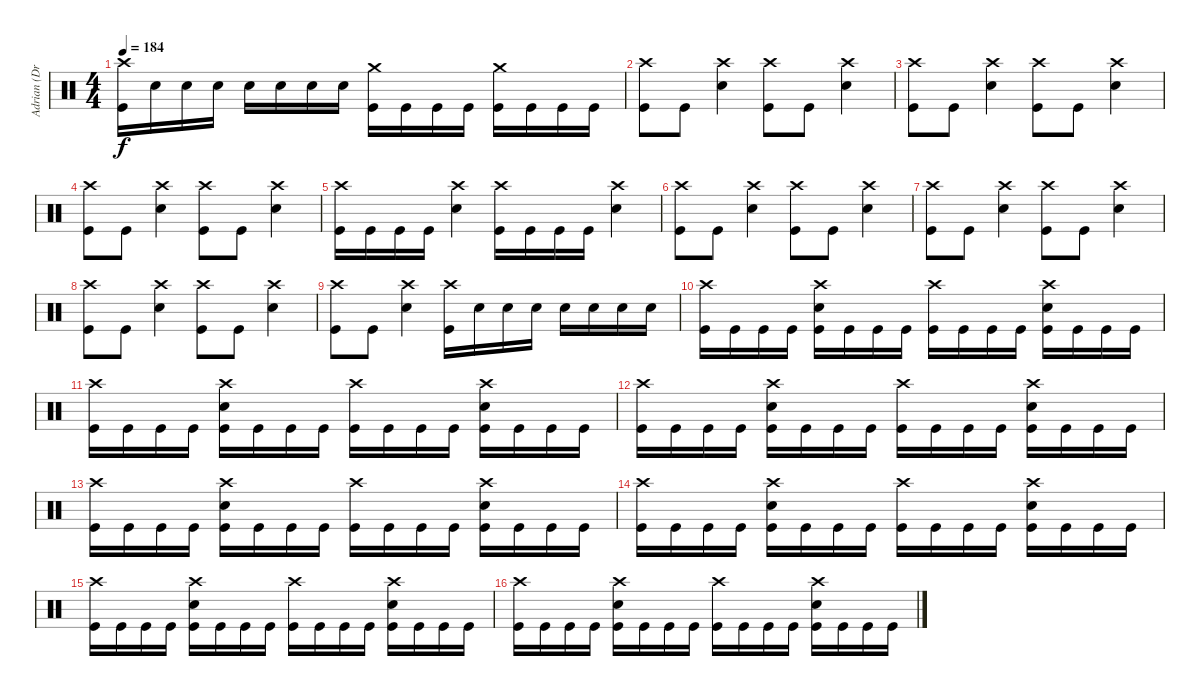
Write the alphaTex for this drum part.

\track ("Adrian (Drums)" "Adrian (Dr") {instrument percussion}
\staff {score}
\articulation defaults
\ts (4 4)
\tempo 184
\clef neutral
\ks c
("Crash high (hit)" "Kick (hit)").16{dy f} "Electric Snare (hit)".16 "Electric Snare (hit)".16 "Electric Snare (hit)".16 "Electric Snare (hit)".16 "Electric Snare (hit)".16 "Electric Snare (hit)".16 "Electric Snare (hit)".16 ("Crash medium (hit)" "Kick (hit)").16 "Kick (hit)".16 "Kick (hit)".16 "Kick (hit)".16 ("Crash medium (hit)" "Kick (hit)").16 "Kick (hit)".16 "Kick (hit)".16 "Kick (hit)".16 |
("Crash high (hit)" "Kick (hit)").8 "Kick (hit)".8 ("Crash high (hit)" "Electric Snare (hit)").4 ("Crash high (hit)" "Kick (hit)").8 "Kick (hit)".8 ("Crash high (hit)" "Electric Snare (hit)").4 |
("Crash high (hit)" "Kick (hit)").8 "Kick (hit)".8 ("Crash high (hit)" "Electric Snare (hit)").4 ("Crash high (hit)" "Kick (hit)").8 "Kick (hit)".8 ("Crash high (hit)" "Electric Snare (hit)").4 |
("Crash high (hit)" "Kick (hit)").8 "Kick (hit)".8 ("Crash high (hit)" "Electric Snare (hit)").4 ("Crash high (hit)" "Kick (hit)").8 "Kick (hit)".8 ("Crash high (hit)" "Electric Snare (hit)").4 |
("Crash high (hit)" "Kick (hit)").16 "Kick (hit)".16 "Kick (hit)".16 "Kick (hit)".16 ("Crash high (hit)" "Electric Snare (hit)").4 ("Crash high (hit)" "Kick (hit)").16 "Kick (hit)".16 "Kick (hit)".16 "Kick (hit)".16 ("Crash high (hit)" "Electric Snare (hit)").4 |
("Crash high (hit)" "Kick (hit)").8 "Kick (hit)".8 ("Crash high (hit)" "Electric Snare (hit)").4 ("Crash high (hit)" "Kick (hit)").8 "Kick (hit)".8 ("Crash high (hit)" "Electric Snare (hit)").4 |
("Crash high (hit)" "Kick (hit)").8 "Kick (hit)".8 ("Crash high (hit)" "Electric Snare (hit)").4 ("Crash high (hit)" "Kick (hit)").8 "Kick (hit)".8 ("Crash high (hit)" "Electric Snare (hit)").4 |
("Crash high (hit)" "Kick (hit)").8 "Kick (hit)".8 ("Crash high (hit)" "Electric Snare (hit)").4 ("Crash high (hit)" "Kick (hit)").8 "Kick (hit)".8 ("Crash high (hit)" "Electric Snare (hit)").4 |
("Crash high (hit)" "Kick (hit)").8 "Kick (hit)".8 ("Crash high (hit)" "Electric Snare (hit)").4 ("Crash high (hit)" "Kick (hit)").16 "Electric Snare (hit)".16 "Electric Snare (hit)".16 "Electric Snare (hit)".16 "Electric Snare (hit)".16 "Electric Snare (hit)".16 "Electric Snare (hit)".16 "Electric Snare (hit)".16 |
("Crash high (hit)" "Kick (hit)").16 "Kick (hit)".16 "Kick (hit)".16 "Kick (hit)".16 ("Crash high (hit)" "Electric Snare (hit)" "Kick (hit)").16 "Kick (hit)".16 "Kick (hit)".16 "Kick (hit)".16 ("Crash high (hit)" "Kick (hit)").16 "Kick (hit)".16 "Kick (hit)".16 "Kick (hit)".16 ("Crash high (hit)" "Electric Snare (hit)" "Kick (hit)").16 "Kick (hit)".16 "Kick (hit)".16 "Kick (hit)".16 |
("Crash high (hit)" "Kick (hit)").16 "Kick (hit)".16 "Kick (hit)".16 "Kick (hit)".16 ("Crash high (hit)" "Electric Snare (hit)" "Kick (hit)").16 "Kick (hit)".16 "Kick (hit)".16 "Kick (hit)".16 ("Crash high (hit)" "Kick (hit)").16 "Kick (hit)".16 "Kick (hit)".16 "Kick (hit)".16 ("Crash high (hit)" "Electric Snare (hit)" "Kick (hit)").16 "Kick (hit)".16 "Kick (hit)".16 "Kick (hit)".16 |
("Crash high (hit)" "Kick (hit)").16 "Kick (hit)".16 "Kick (hit)".16 "Kick (hit)".16 ("Crash high (hit)" "Electric Snare (hit)" "Kick (hit)").16 "Kick (hit)".16 "Kick (hit)".16 "Kick (hit)".16 ("Crash high (hit)" "Kick (hit)").16 "Kick (hit)".16 "Kick (hit)".16 "Kick (hit)".16 ("Crash high (hit)" "Electric Snare (hit)" "Kick (hit)").16 "Kick (hit)".16 "Kick (hit)".16 "Kick (hit)".16 |
("Crash high (hit)" "Kick (hit)").16 "Kick (hit)".16 "Kick (hit)".16 "Kick (hit)".16 ("Crash high (hit)" "Electric Snare (hit)" "Kick (hit)").16 "Kick (hit)".16 "Kick (hit)".16 "Kick (hit)".16 ("Crash high (hit)" "Kick (hit)").16 "Kick (hit)".16 "Kick (hit)".16 "Kick (hit)".16 ("Crash high (hit)" "Electric Snare (hit)" "Kick (hit)").16 "Kick (hit)".16 "Kick (hit)".16 "Kick (hit)".16 |
("Crash high (hit)" "Kick (hit)").16 "Kick (hit)".16 "Kick (hit)".16 "Kick (hit)".16 ("Crash high (hit)" "Electric Snare (hit)" "Kick (hit)").16 "Kick (hit)".16 "Kick (hit)".16 "Kick (hit)".16 ("Crash high (hit)" "Kick (hit)").16 "Kick (hit)".16 "Kick (hit)".16 "Kick (hit)".16 ("Crash high (hit)" "Electric Snare (hit)" "Kick (hit)").16 "Kick (hit)".16 "Kick (hit)".16 "Kick (hit)".16 |
("Crash high (hit)" "Kick (hit)").16 "Kick (hit)".16 "Kick (hit)".16 "Kick (hit)".16 ("Crash high (hit)" "Electric Snare (hit)" "Kick (hit)").16 "Kick (hit)".16 "Kick (hit)".16 "Kick (hit)".16 ("Crash high (hit)" "Kick (hit)").16 "Kick (hit)".16 "Kick (hit)".16 "Kick (hit)".16 ("Crash high (hit)" "Electric Snare (hit)" "Kick (hit)").16 "Kick (hit)".16 "Kick (hit)".16 "Kick (hit)".16 |
("Crash high (hit)" "Kick (hit)").16 "Kick (hit)".16 "Kick (hit)".16 "Kick (hit)".16 ("Crash high (hit)" "Electric Snare (hit)" "Kick (hit)").16 "Kick (hit)".16 "Kick (hit)".16 "Kick (hit)".16 ("Crash high (hit)" "Kick (hit)").16 "Kick (hit)".16 "Kick (hit)".16 "Kick (hit)".16 ("Crash high (hit)" "Electric Snare (hit)" "Kick (hit)").16 "Kick (hit)".16 "Kick (hit)".16 "Kick (hit)".16
